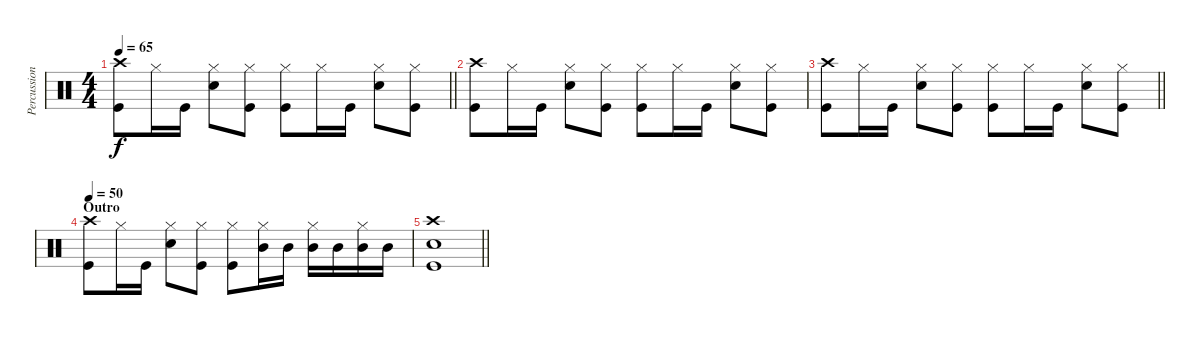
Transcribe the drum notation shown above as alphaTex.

\track ("Percussion" "Percussion") {instrument percussion}
\staff {score}
\articulation defaults
\ts (4 4)
\tempo 65
\clef neutral
\barLineRight lightlight
\ks c
("Crash high (hit)" "Kick (hit)").8{dy f} "Hi-Hat (closed)".16 "Kick (hit)".16 ("Hi-Hat (closed)" "Snare (hit) 2").8 ("Hi-Hat (closed)" "Kick (hit)").8 ("Hi-Hat (closed)" "Kick (hit)").8 "Hi-Hat (closed)".16 "Kick (hit)".16 ("Hi-Hat (closed)" "Snare (hit) 2").8 ("Hi-Hat (closed)" "Kick (hit)").8 |
("Crash high (hit)" "Kick (hit)").8 "Hi-Hat (closed)".16 "Kick (hit)".16 ("Hi-Hat (closed)" "Snare (hit) 2").8 ("Hi-Hat (closed)" "Kick (hit)").8 ("Hi-Hat (closed)" "Kick (hit)").8 "Hi-Hat (closed)".16 "Kick (hit)".16 ("Hi-Hat (closed)" "Snare (hit) 2").8 ("Hi-Hat (closed)" "Kick (hit)").8 |
\barLineRight lightlight
("Crash high (hit)" "Kick (hit)").8 "Hi-Hat (closed)".16 "Kick (hit)".16 ("Hi-Hat (closed)" "Snare (hit) 2").8 ("Hi-Hat (closed)" "Kick (hit)").8 ("Hi-Hat (closed)" "Kick (hit)").8 "Hi-Hat (closed)".16 "Kick (hit)".16 ("Hi-Hat (closed)" "Snare (hit) 2").8 ("Hi-Hat (closed)" "Kick (hit)").8 |
\section ("" "Outro")
\tempo 50
("Crash high (hit)" "Kick (hit)").8 "Hi-Hat (closed)".16 "Kick (hit)".16 ("Hi-Hat (closed)" "Snare (hit) 2").8 ("Hi-Hat (closed)" "Kick (hit)").8 ("Hi-Hat (closed)" "Kick (hit)").8 ("Hi-Hat (closed)" "Mid Tom (hit)").16 "Mid Tom (hit)".16 ("Hi-Hat (closed)" "Mid Tom (hit)").16 "Mid Tom (hit)".16 ("Hi-Hat (closed)" "Mid Tom (hit)").16 "Mid Tom (hit)".16 |
\barLineRight lightlight
("Crash high (hit)" "Snare (hit) 2" "Kick (hit)").1
